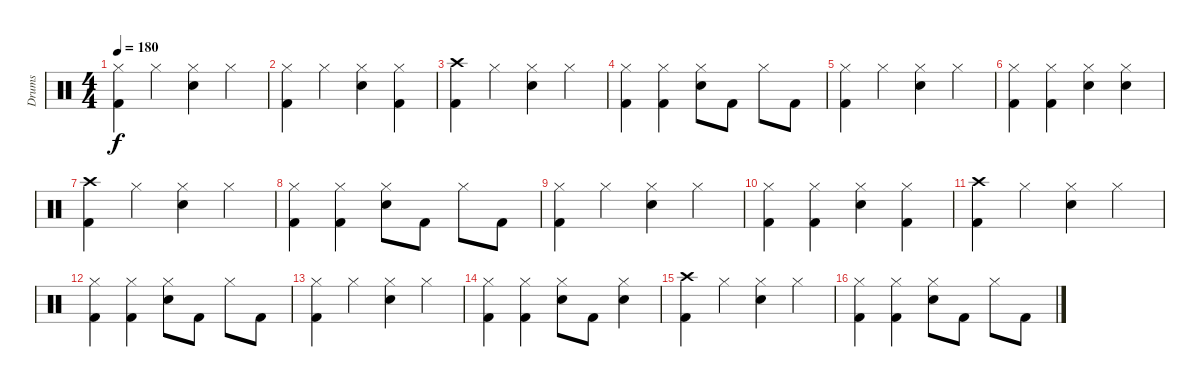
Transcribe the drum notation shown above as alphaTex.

\track ("Drums" "Drums") {instrument percussion}
\staff {score}
\articulation defaults
\ts (4 4)
\tempo 180
\clef neutral
\ks c
("Hi-Hat (closed)" "Kick (hit) 2").4{dy f} "Hi-Hat (closed)".4 ("Hi-Hat (closed)" "Snare (hit) 2").4 "Hi-Hat (closed)".4 |
("Hi-Hat (closed)" "Kick (hit) 2").4 "Hi-Hat (closed)".4 ("Hi-Hat (closed)" "Snare (hit) 2").4 ("Hi-Hat (closed)" "Kick (hit) 2").4 |
("Crash high (hit)" "Kick (hit) 2").4 "Hi-Hat (closed)".4 ("Hi-Hat (closed)" "Snare (hit) 2").4 "Hi-Hat (closed)".4 |
("Hi-Hat (closed)" "Kick (hit) 2").4 ("Hi-Hat (closed)" "Kick (hit) 2").4 ("Hi-Hat (closed)" "Snare (hit) 2").8 "Kick (hit) 2".8 "Hi-Hat (closed)".8 "Kick (hit) 2".8 |
("Hi-Hat (closed)" "Kick (hit) 2").4 "Hi-Hat (closed)".4 ("Hi-Hat (closed)" "Snare (hit) 2").4 "Hi-Hat (closed)".4 |
("Hi-Hat (closed)" "Kick (hit) 2").4 ("Hi-Hat (closed)" "Kick (hit) 2").4 ("Hi-Hat (closed)" "Snare (hit) 2").4 ("Hi-Hat (closed)" "Snare (hit) 2").4 |
("Crash high (hit)" "Kick (hit) 2").4 "Hi-Hat (closed)".4 ("Hi-Hat (closed)" "Snare (hit) 2").4 "Hi-Hat (closed)".4 |
("Hi-Hat (closed)" "Kick (hit) 2").4 ("Hi-Hat (closed)" "Kick (hit) 2").4 ("Hi-Hat (closed)" "Snare (hit) 2").8 "Kick (hit) 2".8 "Hi-Hat (closed)".8 "Kick (hit) 2".8 |
("Hi-Hat (closed)" "Kick (hit) 2").4 "Hi-Hat (closed)".4 ("Hi-Hat (closed)" "Snare (hit) 2").4 "Hi-Hat (closed)".4 |
("Hi-Hat (closed)" "Kick (hit) 2").4 ("Hi-Hat (closed)" "Kick (hit) 2").4 ("Hi-Hat (closed)" "Snare (hit) 2").4 ("Hi-Hat (closed)" "Kick (hit) 2").4 |
("Crash high (hit)" "Kick (hit) 2").4 "Hi-Hat (closed)".4 ("Hi-Hat (closed)" "Snare (hit) 2").4 "Hi-Hat (closed)".4 |
("Hi-Hat (closed)" "Kick (hit) 2").4 ("Hi-Hat (closed)" "Kick (hit) 2").4 ("Hi-Hat (closed)" "Snare (hit) 2").8 "Kick (hit) 2".8 "Hi-Hat (closed)".8 "Kick (hit) 2".8 |
("Hi-Hat (closed)" "Kick (hit) 2").4 "Hi-Hat (closed)".4 ("Hi-Hat (closed)" "Snare (hit) 2").4 "Hi-Hat (closed)".4 |
("Hi-Hat (closed)" "Kick (hit) 2").4 ("Hi-Hat (closed)" "Kick (hit) 2").4 ("Hi-Hat (closed)" "Snare (hit) 2").8 "Kick (hit) 2".8 ("Hi-Hat (closed)" "Snare (hit) 2").4 |
("Crash high (hit)" "Kick (hit) 2").4 "Hi-Hat (closed)".4 ("Hi-Hat (closed)" "Snare (hit) 2").4 "Hi-Hat (closed)".4 |
("Hi-Hat (closed)" "Kick (hit) 2").4 ("Hi-Hat (closed)" "Kick (hit) 2").4 ("Hi-Hat (closed)" "Snare (hit) 2").8 "Kick (hit) 2".8 "Hi-Hat (closed)".8 "Kick (hit) 2".8
